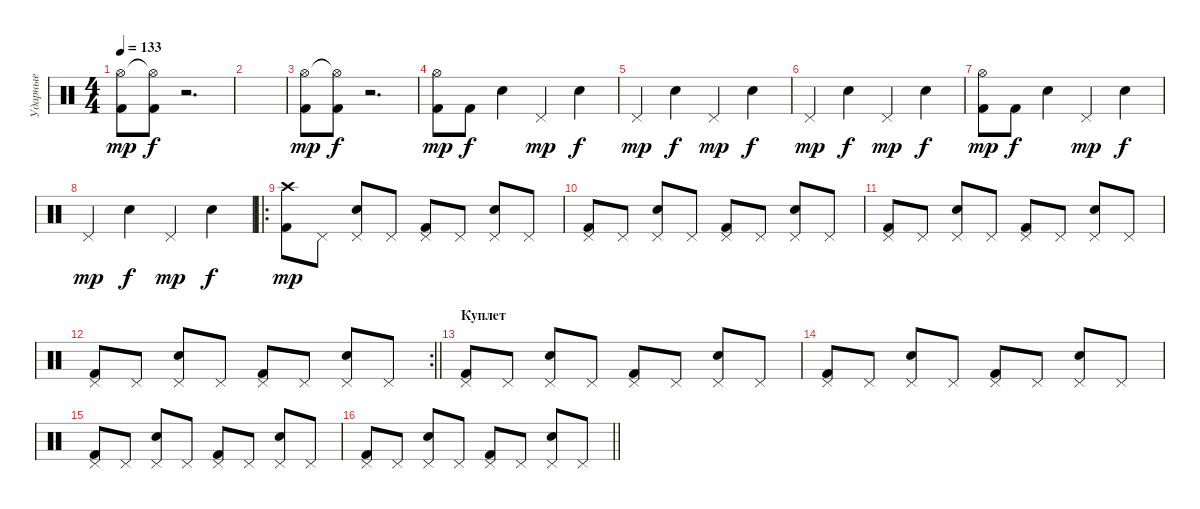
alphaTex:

\track ("Ударные" "Ударные") {instrument percussion}
\staff {score}
\articulation defaults
\ts (4 4)
\tempo 133
\clef neutral
\ks c
("Hi-Hat (open)" "Kick (hit) 2").8{dy mp} ("Hi-Hat (open)"{t} "Kick (hit) 2").8{dy f} r.2{d} |
|
("Hi-Hat (open)" "Kick (hit) 2").8{dy mp} ("Hi-Hat (open)"{t} "Kick (hit) 2").8{dy f} r.2{d} |
("Kick (hit) 2" "Hi-Hat (open)").8{dy mp} "Kick (hit) 2".8{dy f} "Electric Snare (hit)".4 "Pedal Hi-Hat (hit)".4{dy mp} "Electric Snare (hit)".4{dy f} |
"Pedal Hi-Hat (hit)".4{dy mp} "Electric Snare (hit)".4{dy f} "Pedal Hi-Hat (hit)".4{dy mp} "Electric Snare (hit)".4{dy f} |
"Pedal Hi-Hat (hit)".4{dy mp} "Electric Snare (hit)".4{dy f} "Pedal Hi-Hat (hit)".4{dy mp} "Electric Snare (hit)".4{dy f} |
("Kick (hit) 2" "Hi-Hat (open)").8{dy mp} "Kick (hit) 2".8{dy f} "Electric Snare (hit)".4 "Pedal Hi-Hat (hit)".4{dy mp} "Electric Snare (hit)".4{dy f} |
"Pedal Hi-Hat (hit)".4{dy mp} "Electric Snare (hit)".4{dy f} "Pedal Hi-Hat (hit)".4{dy mp} "Electric Snare (hit)".4{dy f} |
\ro
("Kick (hit) 2" "Crash high (hit)").8{dy mp} "Pedal Hi-Hat (hit)".8 ("Electric Snare (hit)" "Pedal Hi-Hat (hit)").8 "Pedal Hi-Hat (hit)".8 ("Kick (hit) 2" "Pedal Hi-Hat (hit)").8 "Pedal Hi-Hat (hit)".8 ("Electric Snare (hit)" "Pedal Hi-Hat (hit)").8 "Pedal Hi-Hat (hit)".8 |
("Kick (hit) 2" "Pedal Hi-Hat (hit)").8 "Pedal Hi-Hat (hit)".8 ("Electric Snare (hit)" "Pedal Hi-Hat (hit)").8 "Pedal Hi-Hat (hit)".8 ("Kick (hit) 2" "Pedal Hi-Hat (hit)").8 "Pedal Hi-Hat (hit)".8 ("Electric Snare (hit)" "Pedal Hi-Hat (hit)").8 "Pedal Hi-Hat (hit)".8 |
("Kick (hit) 2" "Pedal Hi-Hat (hit)").8 "Pedal Hi-Hat (hit)".8 ("Electric Snare (hit)" "Pedal Hi-Hat (hit)").8 "Pedal Hi-Hat (hit)".8 ("Kick (hit) 2" "Pedal Hi-Hat (hit)").8 "Pedal Hi-Hat (hit)".8 ("Electric Snare (hit)" "Pedal Hi-Hat (hit)").8 "Pedal Hi-Hat (hit)".8 |
\rc 2
\barLineRight lightlight
("Kick (hit) 2" "Pedal Hi-Hat (hit)").8 "Pedal Hi-Hat (hit)".8 ("Electric Snare (hit)" "Pedal Hi-Hat (hit)").8 "Pedal Hi-Hat (hit)".8 ("Kick (hit) 2" "Pedal Hi-Hat (hit)").8 "Pedal Hi-Hat (hit)".8 ("Electric Snare (hit)" "Pedal Hi-Hat (hit)").8 "Pedal Hi-Hat (hit)".8 |
\section ("" "Куплет")
("Kick (hit) 2" "Pedal Hi-Hat (hit)").8 "Pedal Hi-Hat (hit)".8 ("Electric Snare (hit)" "Pedal Hi-Hat (hit)").8 "Pedal Hi-Hat (hit)".8 ("Kick (hit) 2" "Pedal Hi-Hat (hit)").8 "Pedal Hi-Hat (hit)".8 ("Electric Snare (hit)" "Pedal Hi-Hat (hit)").8 "Pedal Hi-Hat (hit)".8 |
("Kick (hit) 2" "Pedal Hi-Hat (hit)").8 "Pedal Hi-Hat (hit)".8 ("Electric Snare (hit)" "Pedal Hi-Hat (hit)").8 "Pedal Hi-Hat (hit)".8 ("Kick (hit) 2" "Pedal Hi-Hat (hit)").8 "Pedal Hi-Hat (hit)".8 ("Electric Snare (hit)" "Pedal Hi-Hat (hit)").8 "Pedal Hi-Hat (hit)".8 |
("Kick (hit) 2" "Pedal Hi-Hat (hit)").8 "Pedal Hi-Hat (hit)".8 ("Electric Snare (hit)" "Pedal Hi-Hat (hit)").8 "Pedal Hi-Hat (hit)".8 ("Kick (hit) 2" "Pedal Hi-Hat (hit)").8 "Pedal Hi-Hat (hit)".8 ("Electric Snare (hit)" "Pedal Hi-Hat (hit)").8 "Pedal Hi-Hat (hit)".8 |
\barLineRight lightlight
("Kick (hit) 2" "Pedal Hi-Hat (hit)").8 "Pedal Hi-Hat (hit)".8 ("Electric Snare (hit)" "Pedal Hi-Hat (hit)").8 "Pedal Hi-Hat (hit)".8 ("Kick (hit) 2" "Pedal Hi-Hat (hit)").8 "Pedal Hi-Hat (hit)".8 ("Electric Snare (hit)" "Pedal Hi-Hat (hit)").8 "Pedal Hi-Hat (hit)".8
